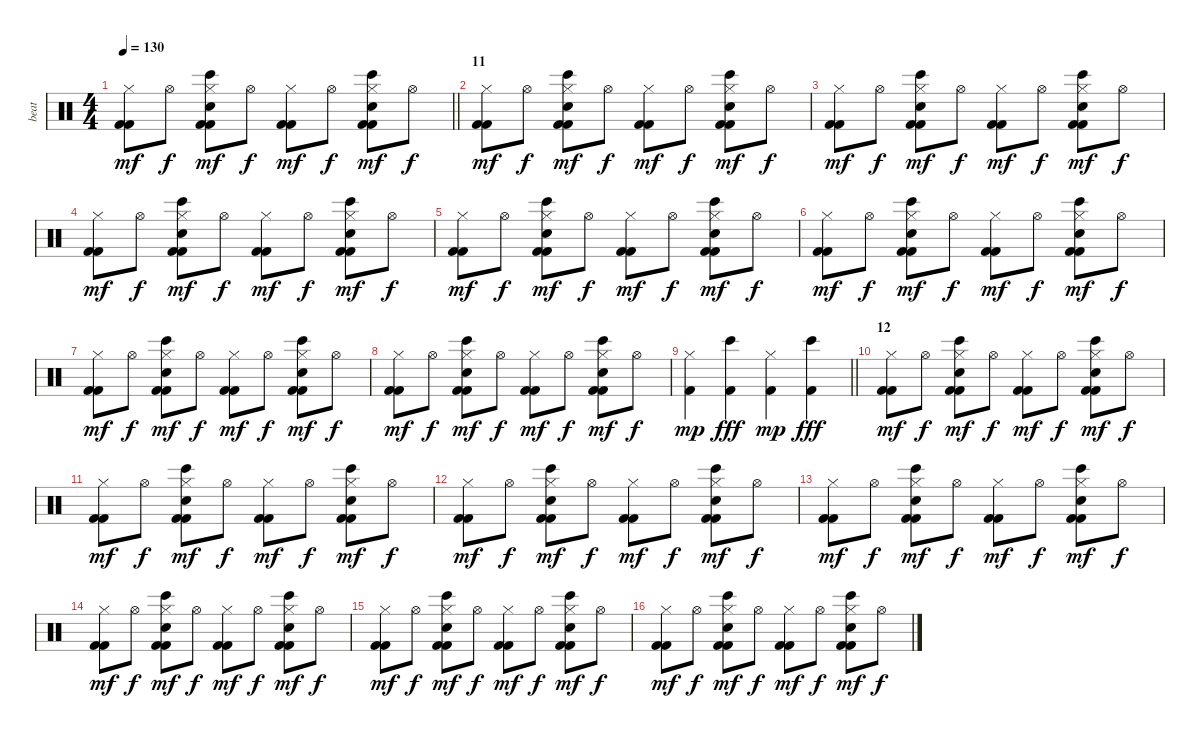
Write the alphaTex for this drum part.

\track ("beat" "beat") {instrument percussion}
\staff {score}
\articulation defaults
\ts (4 4)
\tempo 130
\clef neutral
\barLineRight lightlight
\ks c
("Kick (hit) 2" "Kick (hit) 2" "Hi-Hat (closed)").8{dy mf} "Hi-Hat (open)".8{dy f} ("Kick (hit) 2" "Kick (hit) 2" "Bongo High (hit)" "Hand Clap (hit)" "Hi-Hat (closed)").8{dy mf} "Hi-Hat (open)".8{dy f} ("Kick (hit) 2" "Kick (hit) 2" "Hi-Hat (closed)").8{dy mf} "Hi-Hat (open)".8{dy f} ("Kick (hit) 2" "Kick (hit) 2" "Bongo High (hit)" "Hand Clap (hit)" "Hi-Hat (closed)").8{dy mf} "Hi-Hat (open)".8{dy f} |
\section ("" "11")
("Kick (hit) 2" "Kick (hit) 2" "Hi-Hat (closed)").8{dy mf} "Hi-Hat (open)".8{dy f} ("Kick (hit) 2" "Kick (hit) 2" "Bongo High (hit)" "Hand Clap (hit)" "Hi-Hat (closed)").8{dy mf} "Hi-Hat (open)".8{dy f} ("Kick (hit) 2" "Kick (hit) 2" "Hi-Hat (closed)").8{dy mf} "Hi-Hat (open)".8{dy f} ("Kick (hit) 2" "Kick (hit) 2" "Bongo High (hit)" "Hand Clap (hit)" "Hi-Hat (closed)").8{dy mf} "Hi-Hat (open)".8{dy f} |
("Kick (hit) 2" "Kick (hit) 2" "Hi-Hat (closed)").8{dy mf} "Hi-Hat (open)".8{dy f} ("Kick (hit) 2" "Kick (hit) 2" "Bongo High (hit)" "Hand Clap (hit)" "Hi-Hat (closed)").8{dy mf} "Hi-Hat (open)".8{dy f} ("Kick (hit) 2" "Kick (hit) 2" "Hi-Hat (closed)").8{dy mf} "Hi-Hat (open)".8{dy f} ("Kick (hit) 2" "Kick (hit) 2" "Bongo High (hit)" "Hand Clap (hit)" "Hi-Hat (closed)").8{dy mf} "Hi-Hat (open)".8{dy f} |
("Kick (hit) 2" "Kick (hit) 2" "Hi-Hat (closed)").8{dy mf} "Hi-Hat (open)".8{dy f} ("Kick (hit) 2" "Kick (hit) 2" "Bongo High (hit)" "Hand Clap (hit)" "Hi-Hat (closed)").8{dy mf} "Hi-Hat (open)".8{dy f} ("Kick (hit) 2" "Kick (hit) 2" "Hi-Hat (closed)").8{dy mf} "Hi-Hat (open)".8{dy f} ("Kick (hit) 2" "Kick (hit) 2" "Bongo High (hit)" "Hand Clap (hit)" "Hi-Hat (closed)").8{dy mf} "Hi-Hat (open)".8{dy f} |
("Kick (hit) 2" "Kick (hit) 2" "Hi-Hat (closed)").8{dy mf} "Hi-Hat (open)".8{dy f} ("Kick (hit) 2" "Kick (hit) 2" "Bongo High (hit)" "Hand Clap (hit)" "Hi-Hat (closed)").8{dy mf} "Hi-Hat (open)".8{dy f} ("Kick (hit) 2" "Kick (hit) 2" "Hi-Hat (closed)").8{dy mf} "Hi-Hat (open)".8{dy f} ("Kick (hit) 2" "Kick (hit) 2" "Bongo High (hit)" "Hand Clap (hit)" "Hi-Hat (closed)").8{dy mf} "Hi-Hat (open)".8{dy f} |
("Kick (hit) 2" "Kick (hit) 2" "Hi-Hat (closed)").8{dy mf} "Hi-Hat (open)".8{dy f} ("Kick (hit) 2" "Kick (hit) 2" "Bongo High (hit)" "Hand Clap (hit)" "Hi-Hat (closed)").8{dy mf} "Hi-Hat (open)".8{dy f} ("Kick (hit) 2" "Kick (hit) 2" "Hi-Hat (closed)").8{dy mf} "Hi-Hat (open)".8{dy f} ("Kick (hit) 2" "Kick (hit) 2" "Bongo High (hit)" "Hand Clap (hit)" "Hi-Hat (closed)").8{dy mf} "Hi-Hat (open)".8{dy f} |
("Kick (hit) 2" "Kick (hit) 2" "Hi-Hat (closed)").8{dy mf} "Hi-Hat (open)".8{dy f} ("Kick (hit) 2" "Kick (hit) 2" "Bongo High (hit)" "Hand Clap (hit)" "Hi-Hat (closed)").8{dy mf} "Hi-Hat (open)".8{dy f} ("Kick (hit) 2" "Kick (hit) 2" "Hi-Hat (closed)").8{dy mf} "Hi-Hat (open)".8{dy f} ("Kick (hit) 2" "Kick (hit) 2" "Bongo High (hit)" "Hand Clap (hit)" "Hi-Hat (closed)").8{dy mf} "Hi-Hat (open)".8{dy f} |
("Kick (hit) 2" "Kick (hit) 2" "Hi-Hat (closed)").8{dy mf} "Hi-Hat (open)".8{dy f} ("Kick (hit) 2" "Kick (hit) 2" "Bongo High (hit)" "Hand Clap (hit)" "Hi-Hat (closed)").8{dy mf} "Hi-Hat (open)".8{dy f} ("Kick (hit) 2" "Kick (hit) 2" "Hi-Hat (closed)").8{dy mf} "Hi-Hat (open)".8{dy f} ("Kick (hit) 2" "Kick (hit) 2" "Bongo High (hit)" "Hand Clap (hit)" "Hi-Hat (closed)").8{dy mf} "Hi-Hat (open)".8{dy f} |
\barLineRight lightlight
("Kick (hit) 2" "Hi-Hat (closed)").4{dy mp} ("Kick (hit) 2" "Bongo High (hit)").4{dy fff} ("Kick (hit) 2" "Hi-Hat (closed)").4{dy mp} ("Kick (hit) 2" "Bongo High (hit)").4{dy fff} |
\section ("" "12")
("Kick (hit) 2" "Kick (hit) 2" "Hi-Hat (closed)").8{dy mf} "Hi-Hat (open)".8{dy f} ("Kick (hit) 2" "Kick (hit) 2" "Bongo High (hit)" "Hand Clap (hit)" "Hi-Hat (closed)").8{dy mf} "Hi-Hat (open)".8{dy f} ("Kick (hit) 2" "Kick (hit) 2" "Hi-Hat (closed)").8{dy mf} "Hi-Hat (open)".8{dy f} ("Kick (hit) 2" "Kick (hit) 2" "Bongo High (hit)" "Hand Clap (hit)" "Hi-Hat (closed)").8{dy mf} "Hi-Hat (open)".8{dy f} |
("Kick (hit) 2" "Kick (hit) 2" "Hi-Hat (closed)").8{dy mf} "Hi-Hat (open)".8{dy f} ("Kick (hit) 2" "Kick (hit) 2" "Bongo High (hit)" "Hand Clap (hit)" "Hi-Hat (closed)").8{dy mf} "Hi-Hat (open)".8{dy f} ("Kick (hit) 2" "Kick (hit) 2" "Hi-Hat (closed)").8{dy mf} "Hi-Hat (open)".8{dy f} ("Kick (hit) 2" "Kick (hit) 2" "Bongo High (hit)" "Hand Clap (hit)" "Hi-Hat (closed)").8{dy mf} "Hi-Hat (open)".8{dy f} |
("Kick (hit) 2" "Kick (hit) 2" "Hi-Hat (closed)").8{dy mf} "Hi-Hat (open)".8{dy f} ("Kick (hit) 2" "Kick (hit) 2" "Bongo High (hit)" "Hand Clap (hit)" "Hi-Hat (closed)").8{dy mf} "Hi-Hat (open)".8{dy f} ("Kick (hit) 2" "Kick (hit) 2" "Hi-Hat (closed)").8{dy mf} "Hi-Hat (open)".8{dy f} ("Kick (hit) 2" "Kick (hit) 2" "Bongo High (hit)" "Hand Clap (hit)" "Hi-Hat (closed)").8{dy mf} "Hi-Hat (open)".8{dy f} |
("Kick (hit) 2" "Kick (hit) 2" "Hi-Hat (closed)").8{dy mf} "Hi-Hat (open)".8{dy f} ("Kick (hit) 2" "Kick (hit) 2" "Bongo High (hit)" "Hand Clap (hit)" "Hi-Hat (closed)").8{dy mf} "Hi-Hat (open)".8{dy f} ("Kick (hit) 2" "Kick (hit) 2" "Hi-Hat (closed)").8{dy mf} "Hi-Hat (open)".8{dy f} ("Kick (hit) 2" "Kick (hit) 2" "Bongo High (hit)" "Hand Clap (hit)" "Hi-Hat (closed)").8{dy mf} "Hi-Hat (open)".8{dy f} |
("Kick (hit) 2" "Kick (hit) 2" "Hi-Hat (closed)").8{dy mf} "Hi-Hat (open)".8{dy f} ("Kick (hit) 2" "Kick (hit) 2" "Bongo High (hit)" "Hand Clap (hit)" "Hi-Hat (closed)").8{dy mf} "Hi-Hat (open)".8{dy f} ("Kick (hit) 2" "Kick (hit) 2" "Hi-Hat (closed)").8{dy mf} "Hi-Hat (open)".8{dy f} ("Kick (hit) 2" "Kick (hit) 2" "Bongo High (hit)" "Hand Clap (hit)" "Hi-Hat (closed)").8{dy mf} "Hi-Hat (open)".8{dy f} |
("Kick (hit) 2" "Kick (hit) 2" "Hi-Hat (closed)").8{dy mf} "Hi-Hat (open)".8{dy f} ("Kick (hit) 2" "Kick (hit) 2" "Bongo High (hit)" "Hand Clap (hit)" "Hi-Hat (closed)").8{dy mf} "Hi-Hat (open)".8{dy f} ("Kick (hit) 2" "Kick (hit) 2" "Hi-Hat (closed)").8{dy mf} "Hi-Hat (open)".8{dy f} ("Kick (hit) 2" "Kick (hit) 2" "Bongo High (hit)" "Hand Clap (hit)" "Hi-Hat (closed)").8{dy mf} "Hi-Hat (open)".8{dy f} |
("Kick (hit) 2" "Kick (hit) 2" "Hi-Hat (closed)").8{dy mf} "Hi-Hat (open)".8{dy f} ("Kick (hit) 2" "Kick (hit) 2" "Bongo High (hit)" "Hand Clap (hit)" "Hi-Hat (closed)").8{dy mf} "Hi-Hat (open)".8{dy f} ("Kick (hit) 2" "Kick (hit) 2" "Hi-Hat (closed)").8{dy mf} "Hi-Hat (open)".8{dy f} ("Kick (hit) 2" "Kick (hit) 2" "Bongo High (hit)" "Hand Clap (hit)" "Hi-Hat (closed)").8{dy mf} "Hi-Hat (open)".8{dy f}
